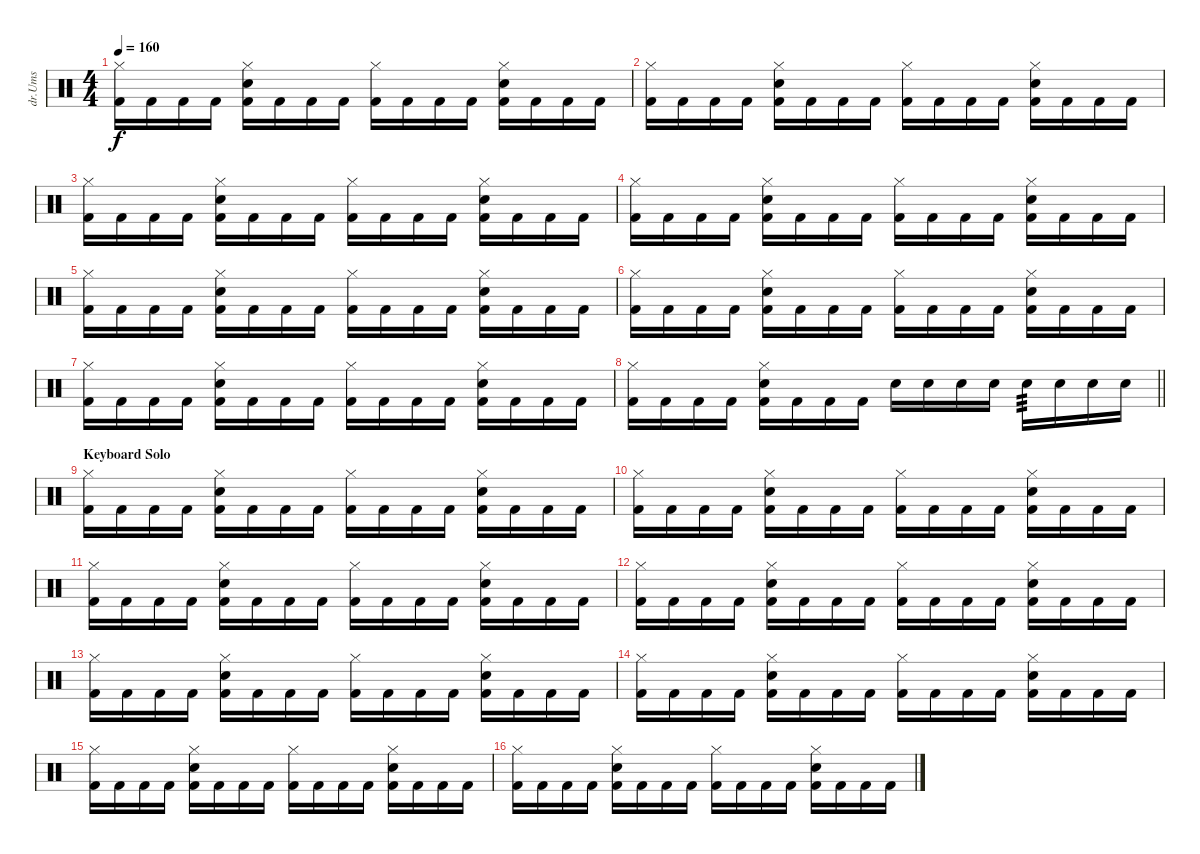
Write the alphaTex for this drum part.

\track ("dr.Ums" "dr.Ums") {instrument percussion}
\staff {score}
\articulation defaults
\ts (4 4)
\tempo 160
\clef neutral
\ks c
("Hi-Hat (closed)" "Kick (hit) 2").16{dy f} "Kick (hit) 2".16 "Kick (hit) 2".16 "Kick (hit) 2".16 ("Snare (hit) 2" "Hi-Hat (closed)" "Kick (hit) 2").16 "Kick (hit) 2".16 "Kick (hit) 2".16 "Kick (hit) 2".16 ("Hi-Hat (closed)" "Kick (hit) 2").16 "Kick (hit) 2".16 "Kick (hit) 2".16 "Kick (hit) 2".16 ("Snare (hit) 2" "Hi-Hat (closed)" "Kick (hit) 2").16 "Kick (hit) 2".16 "Kick (hit) 2".16 "Kick (hit) 2".16 |
("Hi-Hat (closed)" "Kick (hit) 2").16 "Kick (hit) 2".16 "Kick (hit) 2".16 "Kick (hit) 2".16 ("Snare (hit) 2" "Hi-Hat (closed)" "Kick (hit) 2").16 "Kick (hit) 2".16 "Kick (hit) 2".16 "Kick (hit) 2".16 ("Hi-Hat (closed)" "Kick (hit) 2").16 "Kick (hit) 2".16 "Kick (hit) 2".16 "Kick (hit) 2".16 ("Snare (hit) 2" "Hi-Hat (closed)" "Kick (hit) 2").16 "Kick (hit) 2".16 "Kick (hit) 2".16 "Kick (hit) 2".16 |
("Hi-Hat (closed)" "Kick (hit) 2").16 "Kick (hit) 2".16 "Kick (hit) 2".16 "Kick (hit) 2".16 ("Snare (hit) 2" "Hi-Hat (closed)" "Kick (hit) 2").16 "Kick (hit) 2".16 "Kick (hit) 2".16 "Kick (hit) 2".16 ("Hi-Hat (closed)" "Kick (hit) 2").16 "Kick (hit) 2".16 "Kick (hit) 2".16 "Kick (hit) 2".16 ("Snare (hit) 2" "Hi-Hat (closed)" "Kick (hit) 2").16 "Kick (hit) 2".16 "Kick (hit) 2".16 "Kick (hit) 2".16 |
("Hi-Hat (closed)" "Kick (hit) 2").16 "Kick (hit) 2".16 "Kick (hit) 2".16 "Kick (hit) 2".16 ("Snare (hit) 2" "Hi-Hat (closed)" "Kick (hit) 2").16 "Kick (hit) 2".16 "Kick (hit) 2".16 "Kick (hit) 2".16 ("Hi-Hat (closed)" "Kick (hit) 2").16 "Kick (hit) 2".16 "Kick (hit) 2".16 "Kick (hit) 2".16 ("Snare (hit) 2" "Hi-Hat (closed)" "Kick (hit) 2").16 "Kick (hit) 2".16 "Kick (hit) 2".16 "Kick (hit) 2".16 |
("Hi-Hat (closed)" "Kick (hit) 2").16 "Kick (hit) 2".16 "Kick (hit) 2".16 "Kick (hit) 2".16 ("Snare (hit) 2" "Hi-Hat (closed)" "Kick (hit) 2").16 "Kick (hit) 2".16 "Kick (hit) 2".16 "Kick (hit) 2".16 ("Hi-Hat (closed)" "Kick (hit) 2").16 "Kick (hit) 2".16 "Kick (hit) 2".16 "Kick (hit) 2".16 ("Snare (hit) 2" "Hi-Hat (closed)" "Kick (hit) 2").16 "Kick (hit) 2".16 "Kick (hit) 2".16 "Kick (hit) 2".16 |
("Hi-Hat (closed)" "Kick (hit) 2").16 "Kick (hit) 2".16 "Kick (hit) 2".16 "Kick (hit) 2".16 ("Snare (hit) 2" "Hi-Hat (closed)" "Kick (hit) 2").16 "Kick (hit) 2".16 "Kick (hit) 2".16 "Kick (hit) 2".16 ("Hi-Hat (closed)" "Kick (hit) 2").16 "Kick (hit) 2".16 "Kick (hit) 2".16 "Kick (hit) 2".16 ("Snare (hit) 2" "Hi-Hat (closed)" "Kick (hit) 2").16 "Kick (hit) 2".16 "Kick (hit) 2".16 "Kick (hit) 2".16 |
("Hi-Hat (closed)" "Kick (hit) 2").16 "Kick (hit) 2".16 "Kick (hit) 2".16 "Kick (hit) 2".16 ("Snare (hit) 2" "Hi-Hat (closed)" "Kick (hit) 2").16 "Kick (hit) 2".16 "Kick (hit) 2".16 "Kick (hit) 2".16 ("Hi-Hat (closed)" "Kick (hit) 2").16 "Kick (hit) 2".16 "Kick (hit) 2".16 "Kick (hit) 2".16 ("Snare (hit) 2" "Hi-Hat (closed)" "Kick (hit) 2").16 "Kick (hit) 2".16 "Kick (hit) 2".16 "Kick (hit) 2".16 |
\barLineRight lightlight
("Hi-Hat (closed)" "Kick (hit) 2").16 "Kick (hit) 2".16 "Kick (hit) 2".16 "Kick (hit) 2".16 ("Snare (hit) 2" "Hi-Hat (closed)" "Kick (hit) 2").16 "Kick (hit) 2".16 "Kick (hit) 2".16 "Kick (hit) 2".16 "Snare (hit) 2".16 "Snare (hit) 2".16 "Snare (hit) 2".16 "Snare (hit) 2".16 "Snare (hit) 2".16{tp 3} "Snare (hit) 2".16 "Snare (hit) 2".16 "Snare (hit) 2".16 |
\section ("" "Keyboard Solo")
("Hi-Hat (closed)" "Kick (hit) 2").16 "Kick (hit) 2".16 "Kick (hit) 2".16 "Kick (hit) 2".16 ("Snare (hit) 2" "Hi-Hat (closed)" "Kick (hit) 2").16 "Kick (hit) 2".16 "Kick (hit) 2".16 "Kick (hit) 2".16 ("Hi-Hat (closed)" "Kick (hit) 2").16 "Kick (hit) 2".16 "Kick (hit) 2".16 "Kick (hit) 2".16 ("Snare (hit) 2" "Hi-Hat (closed)" "Kick (hit) 2").16 "Kick (hit) 2".16 "Kick (hit) 2".16 "Kick (hit) 2".16 |
("Hi-Hat (closed)" "Kick (hit) 2").16 "Kick (hit) 2".16 "Kick (hit) 2".16 "Kick (hit) 2".16 ("Snare (hit) 2" "Hi-Hat (closed)" "Kick (hit) 2").16 "Kick (hit) 2".16 "Kick (hit) 2".16 "Kick (hit) 2".16 ("Hi-Hat (closed)" "Kick (hit) 2").16 "Kick (hit) 2".16 "Kick (hit) 2".16 "Kick (hit) 2".16 ("Snare (hit) 2" "Hi-Hat (closed)" "Kick (hit) 2").16 "Kick (hit) 2".16 "Kick (hit) 2".16 "Kick (hit) 2".16 |
("Hi-Hat (closed)" "Kick (hit) 2").16 "Kick (hit) 2".16 "Kick (hit) 2".16 "Kick (hit) 2".16 ("Snare (hit) 2" "Hi-Hat (closed)" "Kick (hit) 2").16 "Kick (hit) 2".16 "Kick (hit) 2".16 "Kick (hit) 2".16 ("Hi-Hat (closed)" "Kick (hit) 2").16 "Kick (hit) 2".16 "Kick (hit) 2".16 "Kick (hit) 2".16 ("Snare (hit) 2" "Hi-Hat (closed)" "Kick (hit) 2").16 "Kick (hit) 2".16 "Kick (hit) 2".16 "Kick (hit) 2".16 |
("Hi-Hat (closed)" "Kick (hit) 2").16 "Kick (hit) 2".16 "Kick (hit) 2".16 "Kick (hit) 2".16 ("Snare (hit) 2" "Hi-Hat (closed)" "Kick (hit) 2").16 "Kick (hit) 2".16 "Kick (hit) 2".16 "Kick (hit) 2".16 ("Hi-Hat (closed)" "Kick (hit) 2").16 "Kick (hit) 2".16 "Kick (hit) 2".16 "Kick (hit) 2".16 ("Snare (hit) 2" "Hi-Hat (closed)" "Kick (hit) 2").16 "Kick (hit) 2".16 "Kick (hit) 2".16 "Kick (hit) 2".16 |
("Hi-Hat (closed)" "Kick (hit) 2").16 "Kick (hit) 2".16 "Kick (hit) 2".16 "Kick (hit) 2".16 ("Snare (hit) 2" "Hi-Hat (closed)" "Kick (hit) 2").16 "Kick (hit) 2".16 "Kick (hit) 2".16 "Kick (hit) 2".16 ("Hi-Hat (closed)" "Kick (hit) 2").16 "Kick (hit) 2".16 "Kick (hit) 2".16 "Kick (hit) 2".16 ("Snare (hit) 2" "Hi-Hat (closed)" "Kick (hit) 2").16 "Kick (hit) 2".16 "Kick (hit) 2".16 "Kick (hit) 2".16 |
("Hi-Hat (closed)" "Kick (hit) 2").16 "Kick (hit) 2".16 "Kick (hit) 2".16 "Kick (hit) 2".16 ("Snare (hit) 2" "Hi-Hat (closed)" "Kick (hit) 2").16 "Kick (hit) 2".16 "Kick (hit) 2".16 "Kick (hit) 2".16 ("Hi-Hat (closed)" "Kick (hit) 2").16 "Kick (hit) 2".16 "Kick (hit) 2".16 "Kick (hit) 2".16 ("Snare (hit) 2" "Hi-Hat (closed)" "Kick (hit) 2").16 "Kick (hit) 2".16 "Kick (hit) 2".16 "Kick (hit) 2".16 |
("Hi-Hat (closed)" "Kick (hit) 2").16 "Kick (hit) 2".16 "Kick (hit) 2".16 "Kick (hit) 2".16 ("Snare (hit) 2" "Hi-Hat (closed)" "Kick (hit) 2").16 "Kick (hit) 2".16 "Kick (hit) 2".16 "Kick (hit) 2".16 ("Hi-Hat (closed)" "Kick (hit) 2").16 "Kick (hit) 2".16 "Kick (hit) 2".16 "Kick (hit) 2".16 ("Snare (hit) 2" "Hi-Hat (closed)" "Kick (hit) 2").16 "Kick (hit) 2".16 "Kick (hit) 2".16 "Kick (hit) 2".16 |
("Hi-Hat (closed)" "Kick (hit) 2").16 "Kick (hit) 2".16 "Kick (hit) 2".16 "Kick (hit) 2".16 ("Snare (hit) 2" "Hi-Hat (closed)" "Kick (hit) 2").16 "Kick (hit) 2".16 "Kick (hit) 2".16 "Kick (hit) 2".16 ("Hi-Hat (closed)" "Kick (hit) 2").16 "Kick (hit) 2".16 "Kick (hit) 2".16 "Kick (hit) 2".16 ("Snare (hit) 2" "Hi-Hat (closed)" "Kick (hit) 2").16 "Kick (hit) 2".16 "Kick (hit) 2".16 "Kick (hit) 2".16
